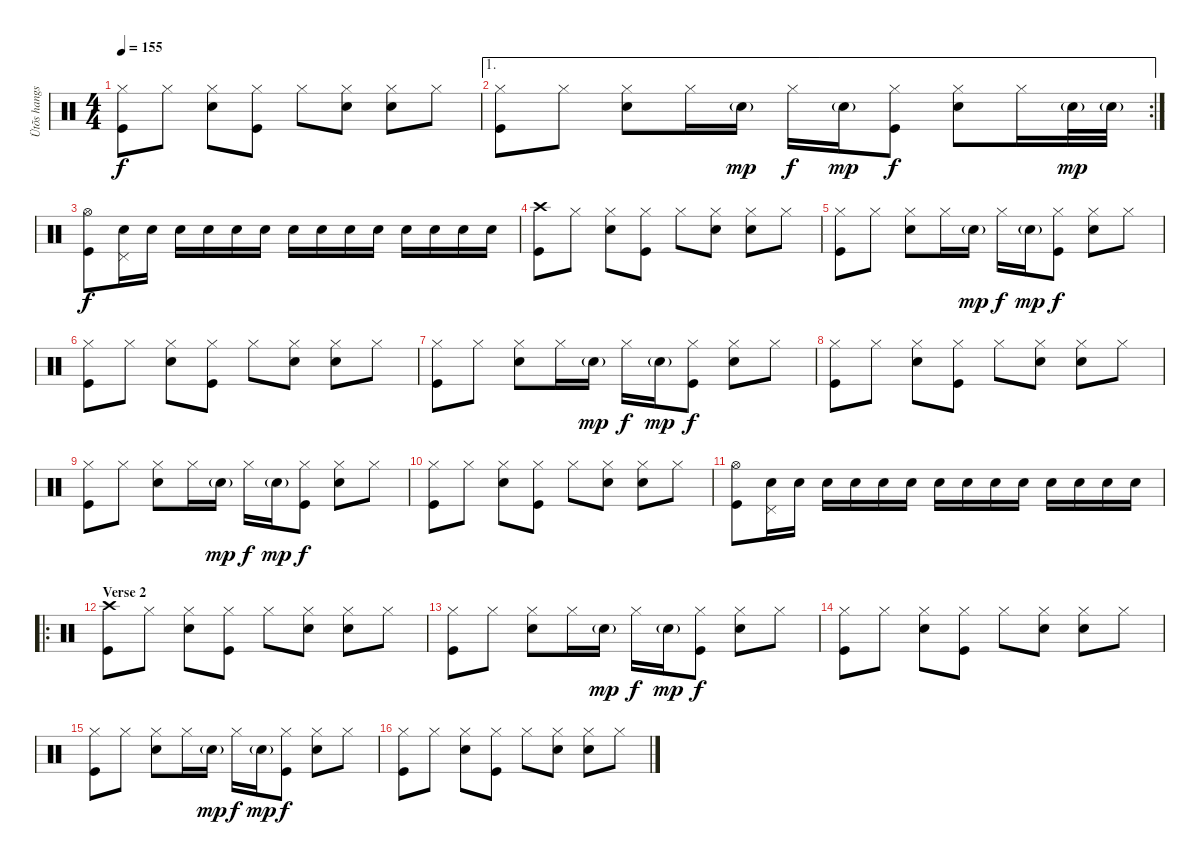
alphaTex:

\track ("Ütõs hangszer" "Ütõs hangs") {instrument percussion}
\staff {score}
\articulation defaults
\ts (4 4)
\tempo 155
\clef neutral
\ks c
("Hi-Hat (closed)" "Kick (hit)").8{dy f} "Hi-Hat (closed)".8 ("Hi-Hat (closed)" "Electric Snare (hit)").8 ("Hi-Hat (closed)" "Kick (hit)").8 "Hi-Hat (closed)".8 ("Hi-Hat (closed)" "Electric Snare (hit)").8 ("Hi-Hat (closed)" "Electric Snare (hit)").8 "Hi-Hat (closed)".8 |
\ae 1
\rc 2
("Hi-Hat (closed)" "Kick (hit)").8 "Hi-Hat (closed)".8 ("Hi-Hat (closed)" "Electric Snare (hit)").8 "Hi-Hat (closed)".16 "Electric Snare (hit)"{g}.16{dy mp} "Hi-Hat (closed)".16{dy f} "Electric Snare (hit)"{g}.16{dy mp} ("Hi-Hat (closed)" "Kick (hit)").8{dy f} ("Hi-Hat (closed)" "Electric Snare (hit)").8 "Hi-Hat (closed)".16 "Electric Snare (hit)"{g}.32{dy mp} "Electric Snare (hit)"{g}.32 |
("Hi-Hat (open)" "Kick (hit)").8{dy f} ("Pedal Hi-Hat (hit)" "Electric Snare (hit)").16 "Electric Snare (hit)".16 "Electric Snare (hit)".16 "Electric Snare (hit)".16 "Electric Snare (hit)".16 "Electric Snare (hit)".16 "Electric Snare (hit)".16 "Electric Snare (hit)".16 "Electric Snare (hit)".16 "Electric Snare (hit)".16 "Electric Snare (hit)".16 "Electric Snare (hit)".16 "Electric Snare (hit)".16 "Electric Snare (hit)".16 |
("Crash high (hit)" "Kick (hit)").8 "Hi-Hat (closed)".8 ("Hi-Hat (closed)" "Electric Snare (hit)").8 ("Hi-Hat (closed)" "Kick (hit)").8 "Hi-Hat (closed)".8 ("Hi-Hat (closed)" "Electric Snare (hit)").8 ("Hi-Hat (closed)" "Electric Snare (hit)").8 "Hi-Hat (closed)".8 |
("Hi-Hat (closed)" "Kick (hit)").8 "Hi-Hat (closed)".8 ("Hi-Hat (closed)" "Electric Snare (hit)").8 "Hi-Hat (closed)".16 "Electric Snare (hit)"{g}.16{dy mp} "Hi-Hat (closed)".16{dy f} "Electric Snare (hit)"{g}.16{dy mp} ("Hi-Hat (closed)" "Kick (hit)").8{dy f} ("Hi-Hat (closed)" "Electric Snare (hit)").8 "Hi-Hat (closed)".8 |
("Hi-Hat (closed)" "Kick (hit)").8 "Hi-Hat (closed)".8 ("Hi-Hat (closed)" "Electric Snare (hit)").8 ("Hi-Hat (closed)" "Kick (hit)").8 "Hi-Hat (closed)".8 ("Hi-Hat (closed)" "Electric Snare (hit)").8 ("Hi-Hat (closed)" "Electric Snare (hit)").8 "Hi-Hat (closed)".8 |
("Hi-Hat (closed)" "Kick (hit)").8 "Hi-Hat (closed)".8 ("Hi-Hat (closed)" "Electric Snare (hit)").8 "Hi-Hat (closed)".16 "Electric Snare (hit)"{g}.16{dy mp} "Hi-Hat (closed)".16{dy f} "Electric Snare (hit)"{g}.16{dy mp} ("Hi-Hat (closed)" "Kick (hit)").8{dy f} ("Hi-Hat (closed)" "Electric Snare (hit)").8 "Hi-Hat (closed)".8 |
("Hi-Hat (closed)" "Kick (hit)").8 "Hi-Hat (closed)".8 ("Hi-Hat (closed)" "Electric Snare (hit)").8 ("Hi-Hat (closed)" "Kick (hit)").8 "Hi-Hat (closed)".8 ("Hi-Hat (closed)" "Electric Snare (hit)").8 ("Hi-Hat (closed)" "Electric Snare (hit)").8 "Hi-Hat (closed)".8 |
("Hi-Hat (closed)" "Kick (hit)").8 "Hi-Hat (closed)".8 ("Hi-Hat (closed)" "Electric Snare (hit)").8 "Hi-Hat (closed)".16 "Electric Snare (hit)"{g}.16{dy mp} "Hi-Hat (closed)".16{dy f} "Electric Snare (hit)"{g}.16{dy mp} ("Hi-Hat (closed)" "Kick (hit)").8{dy f} ("Hi-Hat (closed)" "Electric Snare (hit)").8 "Hi-Hat (closed)".8 |
("Hi-Hat (closed)" "Kick (hit)").8 "Hi-Hat (closed)".8 ("Hi-Hat (closed)" "Electric Snare (hit)").8 ("Hi-Hat (closed)" "Kick (hit)").8 "Hi-Hat (closed)".8 ("Hi-Hat (closed)" "Electric Snare (hit)").8 ("Hi-Hat (closed)" "Electric Snare (hit)").8 "Hi-Hat (closed)".8 |
("Hi-Hat (open)" "Kick (hit)").8 ("Pedal Hi-Hat (hit)" "Electric Snare (hit)").16 "Electric Snare (hit)".16 "Electric Snare (hit)".16 "Electric Snare (hit)".16 "Electric Snare (hit)".16 "Electric Snare (hit)".16 "Electric Snare (hit)".16 "Electric Snare (hit)".16 "Electric Snare (hit)".16 "Electric Snare (hit)".16 "Electric Snare (hit)".16 "Electric Snare (hit)".16 "Electric Snare (hit)".16 "Electric Snare (hit)".16 |
\ro
\section ("" "Verse 2")
("Crash high (hit)" "Kick (hit)").8 "Hi-Hat (closed)".8 ("Hi-Hat (closed)" "Electric Snare (hit)").8 ("Hi-Hat (closed)" "Kick (hit)").8 "Hi-Hat (closed)".8 ("Hi-Hat (closed)" "Electric Snare (hit)").8 ("Hi-Hat (closed)" "Electric Snare (hit)").8 "Hi-Hat (closed)".8 |
("Hi-Hat (closed)" "Kick (hit)").8 "Hi-Hat (closed)".8 ("Hi-Hat (closed)" "Electric Snare (hit)").8 "Hi-Hat (closed)".16 "Electric Snare (hit)"{g}.16{dy mp} "Hi-Hat (closed)".16{dy f} "Electric Snare (hit)"{g}.16{dy mp} ("Hi-Hat (closed)" "Kick (hit)").8{dy f} ("Hi-Hat (closed)" "Electric Snare (hit)").8 "Hi-Hat (closed)".8 |
("Hi-Hat (closed)" "Kick (hit)").8 "Hi-Hat (closed)".8 ("Hi-Hat (closed)" "Electric Snare (hit)").8 ("Hi-Hat (closed)" "Kick (hit)").8 "Hi-Hat (closed)".8 ("Hi-Hat (closed)" "Electric Snare (hit)").8 ("Hi-Hat (closed)" "Electric Snare (hit)").8 "Hi-Hat (closed)".8 |
("Hi-Hat (closed)" "Kick (hit)").8 "Hi-Hat (closed)".8 ("Hi-Hat (closed)" "Electric Snare (hit)").8 "Hi-Hat (closed)".16 "Electric Snare (hit)"{g}.16{dy mp} "Hi-Hat (closed)".16{dy f} "Electric Snare (hit)"{g}.16{dy mp} ("Hi-Hat (closed)" "Kick (hit)").8{dy f} ("Hi-Hat (closed)" "Electric Snare (hit)").8 "Hi-Hat (closed)".8 |
("Hi-Hat (closed)" "Kick (hit)").8 "Hi-Hat (closed)".8 ("Hi-Hat (closed)" "Electric Snare (hit)").8 ("Hi-Hat (closed)" "Kick (hit)").8 "Hi-Hat (closed)".8 ("Hi-Hat (closed)" "Electric Snare (hit)").8 ("Hi-Hat (closed)" "Electric Snare (hit)").8 "Hi-Hat (closed)".8
